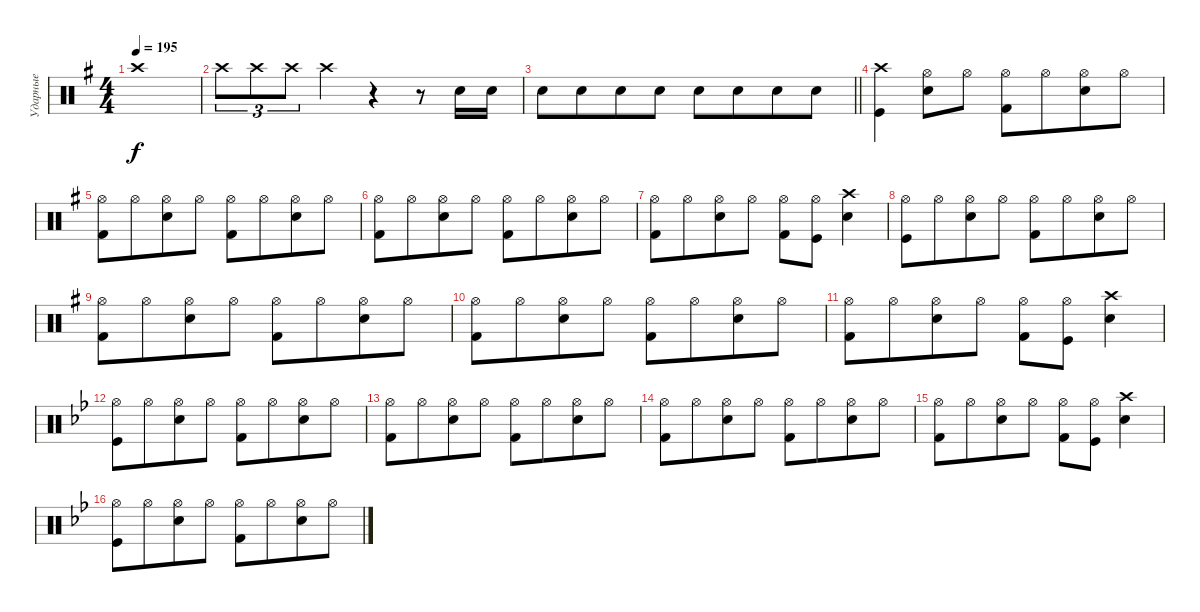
\track ("Ударные" "Ударные") {instrument percussion}
\staff {score}
\articulation defaults
\ts (4 4)
\tempo 195
\clef neutral
\ks eminor "Crash high (hit)"{t}.1{dy f}
|
"Crash high (hit)".8{tu (3 2)} "Crash high (hit)".8{tu (3 2)} "Crash high (hit)".8{tu (3 2)} "Crash high (hit)".4 r.4 r.8 "Snare (hit) 2".16 "Snare (hit) 2".16 |
\barLineRight lightlight "Snare (hit) 2".8 "Snare (hit) 2".8{beam merge} "Snare (hit) 2".8 "Snare (hit) 2".8 "Snare (hit) 2".8 "Snare (hit) 2".8{beam merge} "Snare (hit) 2".8 "Snare (hit) 2".8
|
\section ("" "")
("Kick (hit)" "Crash high (hit)").4 ("Snare (hit) 2" "Hi-Hat (open)").8 "Hi-Hat (open)".8 ("Kick (hit) 2" "Hi-Hat (open)").8 "Hi-Hat (open)".8{beam merge} ("Snare (hit) 2" "Hi-Hat (open)").8 "Hi-Hat (open)".8 |
("Kick (hit) 2" "Hi-Hat (open)").8 "Hi-Hat (open)".8{beam merge} ("Snare (hit) 2" "Hi-Hat (open)").8 "Hi-Hat (open)".8 ("Kick (hit) 2" "Hi-Hat (open)").8 "Hi-Hat (open)".8{beam merge} ("Snare (hit) 2" "Hi-Hat (open)").8 "Hi-Hat (open)".8 |
("Kick (hit) 2" "Hi-Hat (open)").8 "Hi-Hat (open)".8{beam merge} ("Snare (hit) 2" "Hi-Hat (open)").8 "Hi-Hat (open)".8 ("Kick (hit) 2" "Hi-Hat (open)").8 "Hi-Hat (open)".8{beam merge} ("Snare (hit) 2" "Hi-Hat (open)").8 "Hi-Hat (open)".8 |
("Kick (hit) 2" "Hi-Hat (open)").8 "Hi-Hat (open)".8{beam merge} ("Snare (hit) 2" "Hi-Hat (open)").8 "Hi-Hat (open)".8 ("Kick (hit) 2" "Hi-Hat (open)").8 ("Hi-Hat (open)" "Kick (hit)").8 ("Snare (hit) 2" "Crash high (hit)").4 |
("Kick (hit)" "Hi-Hat (open)").8 "Hi-Hat (open)".8{beam merge} ("Snare (hit) 2" "Hi-Hat (open)").8 "Hi-Hat (open)".8 ("Kick (hit) 2" "Hi-Hat (open)").8 "Hi-Hat (open)".8{beam merge} ("Snare (hit) 2" "Hi-Hat (open)").8 "Hi-Hat (open)".8 |
("Kick (hit) 2" "Hi-Hat (open)").8 "Hi-Hat (open)".8{beam merge} ("Snare (hit) 2" "Hi-Hat (open)").8 "Hi-Hat (open)".8 ("Kick (hit) 2" "Hi-Hat (open)").8 "Hi-Hat (open)".8{beam merge} ("Snare (hit) 2" "Hi-Hat (open)").8 "Hi-Hat (open)".8 |
("Kick (hit) 2" "Hi-Hat (open)").8 "Hi-Hat (open)".8{beam merge} ("Snare (hit) 2" "Hi-Hat (open)").8 "Hi-Hat (open)".8 ("Kick (hit) 2" "Hi-Hat (open)").8 "Hi-Hat (open)".8{beam merge} ("Snare (hit) 2" "Hi-Hat (open)").8 "Hi-Hat (open)".8 |
("Kick (hit) 2" "Hi-Hat (open)").8 "Hi-Hat (open)".8{beam merge} ("Snare (hit) 2" "Hi-Hat (open)").8 "Hi-Hat (open)".8 ("Kick (hit) 2" "Hi-Hat (open)").8 ("Hi-Hat (open)" "Kick (hit)").8 ("Snare (hit) 2" "Crash high (hit)").4 |
\ks gminor
("Kick (hit)" "Hi-Hat (open)").8 "Hi-Hat (open)".8{beam merge} ("Snare (hit) 2" "Hi-Hat (open)").8 "Hi-Hat (open)".8 ("Kick (hit) 2" "Hi-Hat (open)").8 "Hi-Hat (open)".8{beam merge} ("Snare (hit) 2" "Hi-Hat (open)").8 "Hi-Hat (open)".8 |
("Kick (hit) 2" "Hi-Hat (open)").8 "Hi-Hat (open)".8{beam merge} ("Snare (hit) 2" "Hi-Hat (open)").8 "Hi-Hat (open)".8 ("Kick (hit) 2" "Hi-Hat (open)").8 "Hi-Hat (open)".8{beam merge} ("Snare (hit) 2" "Hi-Hat (open)").8 "Hi-Hat (open)".8 |
("Kick (hit) 2" "Hi-Hat (open)").8 "Hi-Hat (open)".8{beam merge} ("Snare (hit) 2" "Hi-Hat (open)").8 "Hi-Hat (open)".8 ("Kick (hit) 2" "Hi-Hat (open)").8 "Hi-Hat (open)".8{beam merge} ("Snare (hit) 2" "Hi-Hat (open)").8 "Hi-Hat (open)".8 |
("Kick (hit) 2" "Hi-Hat (open)").8 "Hi-Hat (open)".8{beam merge} ("Snare (hit) 2" "Hi-Hat (open)").8 "Hi-Hat (open)".8 ("Kick (hit) 2" "Hi-Hat (open)").8 ("Hi-Hat (open)" "Kick (hit)").8 ("Snare (hit) 2" "Crash high (hit)").4 |
("Kick (hit)" "Hi-Hat (open)").8 "Hi-Hat (open)".8{beam merge} ("Snare (hit) 2" "Hi-Hat (open)").8 "Hi-Hat (open)".8 ("Kick (hit) 2" "Hi-Hat (open)").8 "Hi-Hat (open)".8{beam merge} ("Snare (hit) 2" "Hi-Hat (open)").8 "Hi-Hat (open)".8
